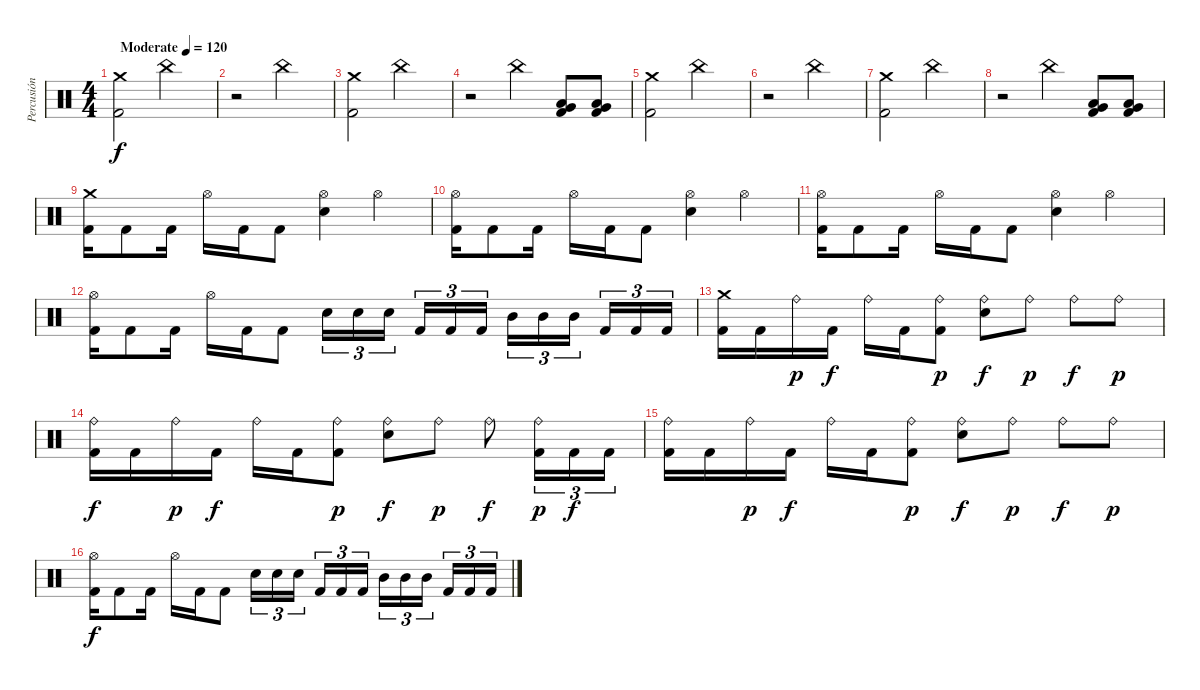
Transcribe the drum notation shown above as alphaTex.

\track ("Percusión" "Percusión") {instrument percussion}
\staff {score}
\articulation defaults
\ts (4 4)
\tempo (120 "Moderate")
\clef neutral
\ks c
("Kick (hit) 2" "Crash medium (hit)").2{dy f} "China (hit)".2 |
r.2 "China (hit)".2 |
("Kick (hit) 2" "Crash medium (hit)").2 "China (hit)".2 |
r.2 "China (hit)".4 ("Kick (hit) 2" "Low Floor Tom (hit)" "Very Low Tom (hit)").8 ("Kick (hit) 2" "Low Floor Tom (hit)" "Very Low Tom (hit)").8 |
("Kick (hit) 2" "Crash medium (hit)").2 "China (hit)".2 |
r.2 "China (hit)".2 |
("Kick (hit) 2" "Crash medium (hit)").2 "China (hit)".2 |
r.2 "China (hit)".4 ("Kick (hit) 2" "Low Floor Tom (hit)" "Very Low Tom (hit)").8 ("Kick (hit) 2" "Low Floor Tom (hit)" "Very Low Tom (hit)").8 |
("Kick (hit) 2" "Crash medium (hit)").16 "Kick (hit) 2".8 "Kick (hit) 2".16 "Hi-Hat (open)".16 "Kick (hit) 2".16 "Kick (hit) 2".8 ("Electric Snare (hit)" "Hi-Hat (open)").4 "Hi-Hat (open)".4 |
("Kick (hit) 2" "Hi-Hat (open)").16 "Kick (hit) 2".8 "Kick (hit) 2".16 "Hi-Hat (open)".16 "Kick (hit) 2".16 "Kick (hit) 2".8 ("Electric Snare (hit)" "Hi-Hat (open)").4 "Hi-Hat (open)".4 |
("Kick (hit) 2" "Hi-Hat (open)").16 "Kick (hit) 2".8 "Kick (hit) 2".16 "Hi-Hat (open)".16 "Kick (hit) 2".16 "Kick (hit) 2".8 ("Electric Snare (hit)" "Hi-Hat (open)").4 "Hi-Hat (open)".4 |
("Kick (hit) 2" "Hi-Hat (open)").16 "Kick (hit) 2".8 "Kick (hit) 2".16 "Hi-Hat (open)".16 "Kick (hit) 2".16 "Kick (hit) 2".8 "Electric Snare (hit)".16{tu (3 2)} "Electric Snare (hit)".16{tu (3 2)} "Electric Snare (hit)".16{tu (3 2) beam splitsecondary} "Kick (hit) 2".16{tu (3 2)} "Kick (hit) 2".16{tu (3 2)} "Kick (hit) 2".16{tu (3 2)} "Mid Tom (hit)".16{tu (3 2)} "Mid Tom (hit)".16{tu (3 2)} "Mid Tom (hit)".16{tu (3 2) beam splitsecondary} "Kick (hit) 2".16{tu (3 2)} "Kick (hit) 2".16{tu (3 2)} "Kick (hit) 2".16{tu (3 2)} |
("Kick (hit) 2" "Crash medium (hit)").16 "Kick (hit) 2".16 "Ride (bell)".16{dy p} "Kick (hit) 2".16{dy f} "Ride (bell)".16 "Kick (hit) 2".16 ("Kick (hit) 2" "Ride (bell)").8{dy p} ("Electric Snare (hit)" "Ride (bell)").8{dy f} "Ride (bell)".8{dy p} "Ride (bell)".8{dy f} "Ride (bell)".8{dy p} |
("Kick (hit) 2" "Ride (bell)").16{dy f} "Kick (hit) 2".16 "Ride (bell)".16{dy p} "Kick (hit) 2".16{dy f} "Ride (bell)".16 "Kick (hit) 2".16 ("Kick (hit) 2" "Ride (bell)").8{dy p} ("Electric Snare (hit)" "Ride (bell)").8{dy f} "Ride (bell)".8{dy p} "Ride (bell)".8{dy f} ("Kick (hit) 2" "Ride (bell)").16{tu (3 2) dy p} "Kick (hit) 2".16{tu (3 2) dy f} "Kick (hit) 2".16{tu (3 2)} |
("Kick (hit) 2" "Ride (bell)").16 "Kick (hit) 2".16 "Ride (bell)".16{dy p} "Kick (hit) 2".16{dy f} "Ride (bell)".16 "Kick (hit) 2".16 ("Kick (hit) 2" "Ride (bell)").8{dy p} ("Electric Snare (hit)" "Ride (bell)").8{dy f} "Ride (bell)".8{dy p} "Ride (bell)".8{dy f} "Ride (bell)".8{dy p} |
("Kick (hit) 2" "Hi-Hat (open)").16{dy f} "Kick (hit) 2".8 "Kick (hit) 2".16 "Hi-Hat (open)".16 "Kick (hit) 2".16 "Kick (hit) 2".8 "Electric Snare (hit)".16{tu (3 2)} "Electric Snare (hit)".16{tu (3 2)} "Electric Snare (hit)".16{tu (3 2) beam splitsecondary} "Kick (hit) 2".16{tu (3 2)} "Kick (hit) 2".16{tu (3 2)} "Kick (hit) 2".16{tu (3 2)} "Mid Tom (hit)".16{tu (3 2)} "Mid Tom (hit)".16{tu (3 2)} "Mid Tom (hit)".16{tu (3 2) beam splitsecondary} "Kick (hit) 2".16{tu (3 2)} "Kick (hit) 2".16{tu (3 2)} "Kick (hit) 2".16{tu (3 2)}
